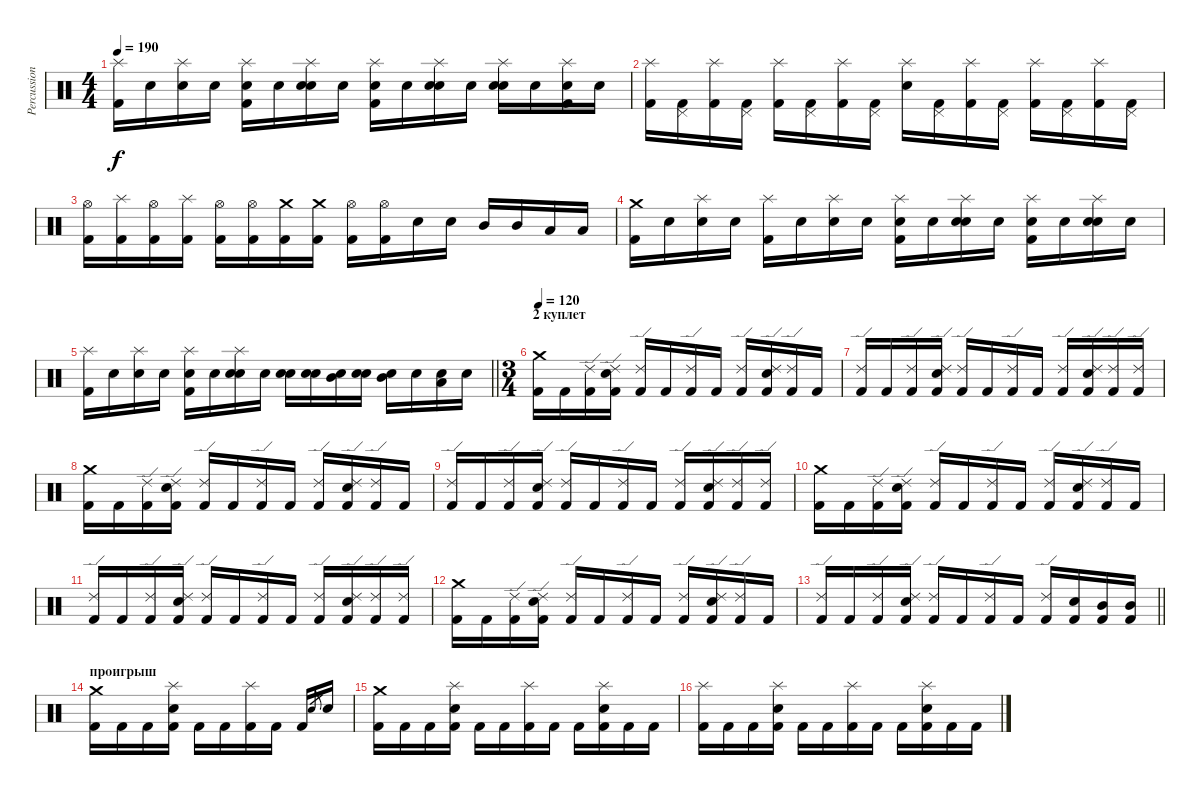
\track ("Percussion" "Percussion") {instrument percussion}
\staff {score}
\articulation defaults
\ts (4 4)
\tempo 190
\clef neutral
\ks c
("Splash (hit)" "Kick (hit) 2").16{dy f} "Snare (hit)".16 ("Splash (hit)" "Electric Snare (hit)").16 "Snare (hit)".16 ("Splash (hit)" "Kick (hit) 2" "Snare (hit)").16 "Snare (hit)".16 ("Splash (hit)" "Electric Snare (hit)" "Snare (hit)").16 "Snare (hit)".16 ("Splash (hit)" "Kick (hit) 2" "Snare (hit)").16 "Snare (hit)".16 ("Splash (hit)" "Electric Snare (hit)" "Snare (hit)").16 "Snare (hit)".16 ("Splash (hit)" "Electric Snare (hit)" "Snare (hit)").16 "Snare (hit)".16 ("Splash (hit)" "Kick (hit) 2" "Snare (hit)").16 "Snare (hit)".16 |
("Splash (hit)" "Kick (hit) 2").16 ("Pedal Hi-Hat (hit)" "Kick (hit) 2").16 ("Splash (hit)" "Kick (hit) 2").16 ("Pedal Hi-Hat (hit)" "Kick (hit) 2").16 ("Splash (hit)" "Kick (hit) 2").16 ("Pedal Hi-Hat (hit)" "Kick (hit) 2").16 ("Splash (hit)" "Kick (hit) 2").16 ("Pedal Hi-Hat (hit)" "Kick (hit) 2").16 ("Splash (hit)" "Electric Snare (hit)").16 ("Pedal Hi-Hat (hit)" "Kick (hit) 2").16 ("Splash (hit)" "Kick (hit) 2").16 ("Pedal Hi-Hat (hit)" "Kick (hit) 2").16 ("Splash (hit)" "Kick (hit) 2").16 ("Pedal Hi-Hat (hit)" "Kick (hit) 2").16 ("Splash (hit)" "Kick (hit) 2").16 ("Pedal Hi-Hat (hit)" "Kick (hit) 2").16 |
("Hi-Hat (open)" "Kick (hit) 2").16 ("Splash (hit)" "Kick (hit) 2").16 ("Hi-Hat (open)" "Kick (hit) 2").16 ("Splash (hit)" "Kick (hit) 2").16 ("Hi-Hat (open)" "Kick (hit) 2").16 ("Hi-Hat (open)" "Kick (hit) 2").16 ("Crash medium (hit)" "Kick (hit) 2").16 ("Crash medium (hit)" "Kick (hit) 2").16 ("Hi-Hat (open)" "Kick (hit) 2").16 ("Hi-Hat (open)" "Kick (hit) 2").16 "Electric Snare (hit)".16 "Electric Snare (hit)".16 "Mid Tom (hit)".16 "Mid Tom (hit)".16 "Low Tom (hit)".16 "Low Tom (hit)".16 |
("Crash medium (hit)" "Kick (hit) 2").16 "Snare (hit)".16 ("Electric Snare (hit)" "Splash (hit)").16 "Snare (hit)".16 ("Splash (hit)" "Kick (hit) 2").16 "Snare (hit)".16 ("Splash (hit)" "Electric Snare (hit)").16 "Snare (hit)".16 ("Splash (hit)" "Kick (hit) 2" "Snare (hit)").16 "Snare (hit)".16 ("Splash (hit)" "Electric Snare (hit)" "Snare (hit)").16 "Snare (hit)".16 ("Splash (hit)" "Kick (hit) 2" "Snare (hit)").16 "Snare (hit)".16 ("Splash (hit)" "Electric Snare (hit)" "Snare (hit)").16 "Snare (hit)".16 |
\barLineRight lightlight
("Splash (hit)" "Kick (hit) 2").16 "Snare (hit)".16 ("Splash (hit)" "Electric Snare (hit)").16 "Snare (hit)".16 ("Splash (hit)" "Kick (hit) 2" "Snare (hit)").16 "Snare (hit)".16 ("Splash (hit)" "Electric Snare (hit)" "Snare (hit)").16 "Snare (hit)".16 ("Electric Snare (hit)" "Snare (hit)").16 ("Electric Snare (hit)" "Snare (hit)").16 ("Mid Tom (hit)" "Snare (hit)").16 ("Snare (hit)" "Snare (hit)").16 ("Mid Tom (hit)" "Snare (hit)").16 "Snare (hit)".16 ("Low Tom (hit)" "Snare (hit)").16 "Snare (hit)".16 |
\ts (3 4)
\section ("" "2 куплет")
\tempo 120
("Kick (hit) 2" "Crash medium (hit)").16 "Kick (hit) 2".16 ("Kick (hit) 2" "Ride (edge) 2").16 ("Kick (hit) 2" "Electric Snare (hit)" "Ride (edge) 2").16 ("Kick (hit) 2" "Ride (edge) 2").16 "Kick (hit) 2".16 ("Kick (hit) 2" "Ride (edge) 2").16 "Kick (hit) 2".16 ("Kick (hit) 2" "Ride (edge) 2").16 ("Kick (hit) 2" "Electric Snare (hit)" "Ride (edge) 2").16 ("Kick (hit) 2" "Ride (edge) 2").16 "Kick (hit) 2".16 |
("Kick (hit) 2" "Ride (edge) 2").16 "Kick (hit) 2".16 ("Kick (hit) 2" "Ride (edge) 2").16 ("Kick (hit) 2" "Electric Snare (hit)" "Ride (edge) 2").16 ("Kick (hit) 2" "Ride (edge) 2").16 "Kick (hit) 2".16 ("Kick (hit) 2" "Ride (edge) 2").16 "Kick (hit) 2".16 ("Kick (hit) 2" "Ride (edge) 2").16 ("Kick (hit) 2" "Electric Snare (hit)" "Ride (edge) 2").16 ("Kick (hit) 2" "Ride (edge) 2").16 ("Kick (hit) 2" "Ride (edge) 2").16 |
("Kick (hit) 2" "Crash medium (hit)").16 "Kick (hit) 2".16 ("Kick (hit) 2" "Ride (edge) 2").16 ("Kick (hit) 2" "Electric Snare (hit)" "Ride (edge) 2").16 ("Kick (hit) 2" "Ride (edge) 2").16 "Kick (hit) 2".16 ("Kick (hit) 2" "Ride (edge) 2").16 "Kick (hit) 2".16 ("Kick (hit) 2" "Ride (edge) 2").16 ("Kick (hit) 2" "Electric Snare (hit)" "Ride (edge) 2").16 ("Kick (hit) 2" "Ride (edge) 2").16 "Kick (hit) 2".16 |
("Kick (hit) 2" "Ride (edge) 2").16 "Kick (hit) 2".16 ("Kick (hit) 2" "Ride (edge) 2").16 ("Kick (hit) 2" "Electric Snare (hit)" "Ride (edge) 2").16 ("Kick (hit) 2" "Ride (edge) 2").16 "Kick (hit) 2".16 ("Kick (hit) 2" "Ride (edge) 2").16 "Kick (hit) 2".16 ("Kick (hit) 2" "Ride (edge) 2").16 ("Kick (hit) 2" "Electric Snare (hit)" "Ride (edge) 2").16 ("Kick (hit) 2" "Ride (edge) 2").16 ("Kick (hit) 2" "Ride (edge) 2").16 |
("Kick (hit) 2" "Crash medium (hit)").16 "Kick (hit) 2".16 ("Kick (hit) 2" "Ride (edge) 2").16 ("Kick (hit) 2" "Electric Snare (hit)" "Ride (edge) 2").16 ("Kick (hit) 2" "Ride (edge) 2").16 "Kick (hit) 2".16 ("Kick (hit) 2" "Ride (edge) 2").16 "Kick (hit) 2".16 ("Kick (hit) 2" "Ride (edge) 2").16 ("Kick (hit) 2" "Electric Snare (hit)" "Ride (edge) 2").16 ("Kick (hit) 2" "Ride (edge) 2").16 "Kick (hit) 2".16 |
("Kick (hit) 2" "Ride (edge) 2").16 "Kick (hit) 2".16 ("Kick (hit) 2" "Ride (edge) 2").16 ("Kick (hit) 2" "Electric Snare (hit)" "Ride (edge) 2").16 ("Kick (hit) 2" "Ride (edge) 2").16 "Kick (hit) 2".16 ("Kick (hit) 2" "Ride (edge) 2").16 "Kick (hit) 2".16 ("Kick (hit) 2" "Ride (edge) 2").16 ("Kick (hit) 2" "Electric Snare (hit)" "Ride (edge) 2").16 ("Kick (hit) 2" "Ride (edge) 2").16 ("Kick (hit) 2" "Ride (edge) 2").16 |
("Kick (hit) 2" "Crash medium (hit)").16 "Kick (hit) 2".16 ("Kick (hit) 2" "Ride (edge) 2").16 ("Kick (hit) 2" "Electric Snare (hit)" "Ride (edge) 2").16 ("Kick (hit) 2" "Ride (edge) 2").16 "Kick (hit) 2".16 ("Kick (hit) 2" "Ride (edge) 2").16 "Kick (hit) 2".16 ("Kick (hit) 2" "Ride (edge) 2").16 ("Kick (hit) 2" "Electric Snare (hit)" "Ride (edge) 2").16 ("Kick (hit) 2" "Ride (edge) 2").16 "Kick (hit) 2".16 |
\barLineRight lightlight
("Kick (hit) 2" "Ride (edge) 2").16 "Kick (hit) 2".16 ("Kick (hit) 2" "Ride (edge) 2").16 ("Kick (hit) 2" "Electric Snare (hit)" "Ride (edge) 2").16 ("Kick (hit) 2" "Ride (edge) 2").16 "Kick (hit) 2".16 ("Kick (hit) 2" "Ride (edge) 2").16 "Kick (hit) 2".16 ("Kick (hit) 2" "Ride (edge) 2").16 ("Kick (hit) 2" "Electric Snare (hit)").16 ("Kick (hit) 2" "Mid Tom (hit)").16 ("Kick (hit) 2" "Mid Tom (hit)").16 |
\section ("" "проигрыш")
("Kick (hit) 2" "Crash medium (hit)").16 "Kick (hit) 2".16 "Kick (hit) 2".16 ("Kick (hit) 2" "Electric Snare (hit)" "Splash (hit)").16 "Kick (hit) 2".16 "Kick (hit) 2".16 ("Kick (hit) 2" "Splash (hit)").16 "Kick (hit) 2".16 "Kick (hit) 2".16 "Electric Snare (hit)".8{gr} "Electric Snare (hit)".16 |
("Kick (hit) 2" "Crash medium (hit)").16 "Kick (hit) 2".16 "Kick (hit) 2".16 ("Kick (hit) 2" "Electric Snare (hit)" "Splash (hit)").16 "Kick (hit) 2".16 "Kick (hit) 2".16 ("Kick (hit) 2" "Splash (hit)").16 "Kick (hit) 2".16 "Kick (hit) 2".16 ("Kick (hit) 2" "Electric Snare (hit)" "Splash (hit)").16 "Kick (hit) 2".16 "Kick (hit) 2".16 |
("Kick (hit) 2" "Splash (hit)").16 "Kick (hit) 2".16 "Kick (hit) 2".16 ("Kick (hit) 2" "Electric Snare (hit)" "Splash (hit)").16 "Kick (hit) 2".16 "Kick (hit) 2".16 ("Kick (hit) 2" "Splash (hit)").16 "Kick (hit) 2".16 "Kick (hit) 2".16 ("Kick (hit) 2" "Electric Snare (hit)" "Splash (hit)").16 "Kick (hit) 2".16 "Kick (hit) 2".16
